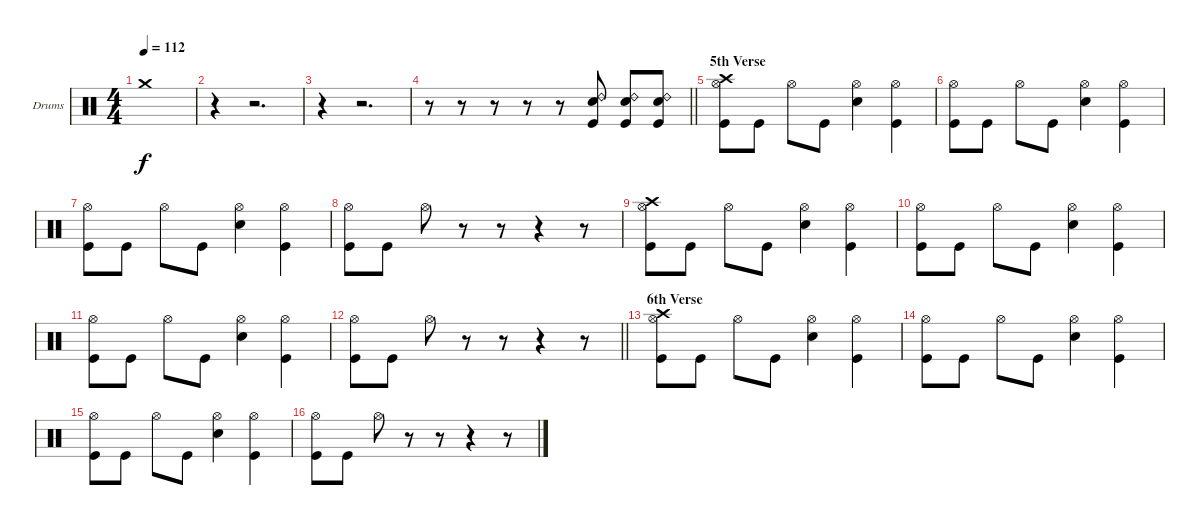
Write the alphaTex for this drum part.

\bracketExtendMode groupsimilarinstruments
\firstSystemTrackNameOrientation horizontal
\otherSystemsTrackNameOrientation horizontal
\track ("Drumkit" "Drums") {instrument percussion}
\staff {score}
\articulation defaults
\ts (4 4)
\tempo 112
\clef neutral
\ks c "Crash medium (hit)".1{dy f}
|
r.4 r.2{d} |
r.4 r.2{d} |
\barLineRight lightlight
r.8 r.8 r.8 r.8 r.8 ("Snare (hit) 2" "Ride (bell) 2" "Kick (hit)").8 ("Snare (hit) 2" "Ride (bell) 2" "Kick (hit)").8 ("Snare (hit) 2" "Ride (bell) 2" "Kick (hit)").8 |
\section ("" "5th Verse")
("Kick (hit)" "Hi-Hat (open)" "Crash high (hit)").8 "Kick (hit)".8 "Hi-Hat (open)".8 "Kick (hit)".8 ("Snare (hit) 2" "Hi-Hat (open)").4 ("Kick (hit)" "Hi-Hat (open)").4 |
("Kick (hit)" "Hi-Hat (open)").8 "Kick (hit)".8 "Hi-Hat (open)".8 "Kick (hit)".8 ("Snare (hit) 2" "Hi-Hat (open)").4 ("Kick (hit)" "Hi-Hat (open)").4 |
("Kick (hit)" "Hi-Hat (open)").8 "Kick (hit)".8 "Hi-Hat (open)".8 "Kick (hit)".8 ("Snare (hit) 2" "Hi-Hat (open)").4 ("Kick (hit)" "Hi-Hat (open)").4 |
("Kick (hit)" "Hi-Hat (open)").8 "Kick (hit)".8 "Hi-Hat (open)".8 r.8 r.8 r.4 r.8 |
("Kick (hit)" "Hi-Hat (open)" "Crash high (hit)").8 "Kick (hit)".8 "Hi-Hat (open)".8 "Kick (hit)".8 ("Snare (hit) 2" "Hi-Hat (open)").4 ("Kick (hit)" "Hi-Hat (open)").4 |
("Kick (hit)" "Hi-Hat (open)").8 "Kick (hit)".8 "Hi-Hat (open)".8 "Kick (hit)".8 ("Snare (hit) 2" "Hi-Hat (open)").4 ("Kick (hit)" "Hi-Hat (open)").4 |
("Kick (hit)" "Hi-Hat (open)").8 "Kick (hit)".8 "Hi-Hat (open)".8 "Kick (hit)".8 ("Snare (hit) 2" "Hi-Hat (open)").4 ("Kick (hit)" "Hi-Hat (open)").4 |
\barLineRight lightlight
("Kick (hit)" "Hi-Hat (open)").8 "Kick (hit)".8 "Hi-Hat (open)".8 r.8 r.8 r.4 r.8 |
\section ("" "6th Verse")
("Kick (hit)" "Hi-Hat (open)" "Crash high (hit)").8 "Kick (hit)".8 "Hi-Hat (open)".8 "Kick (hit)".8 ("Snare (hit) 2" "Hi-Hat (open)").4 ("Kick (hit)" "Hi-Hat (open)").4 |
("Kick (hit)" "Hi-Hat (open)").8 "Kick (hit)".8 "Hi-Hat (open)".8 "Kick (hit)".8 ("Snare (hit) 2" "Hi-Hat (open)").4 ("Kick (hit)" "Hi-Hat (open)").4 |
("Kick (hit)" "Hi-Hat (open)").8 "Kick (hit)".8 "Hi-Hat (open)".8 "Kick (hit)".8 ("Snare (hit) 2" "Hi-Hat (open)").4 ("Kick (hit)" "Hi-Hat (open)").4 |
("Kick (hit)" "Hi-Hat (open)").8 "Kick (hit)".8 "Hi-Hat (open)".8 r.8 r.8 r.4 r.8
